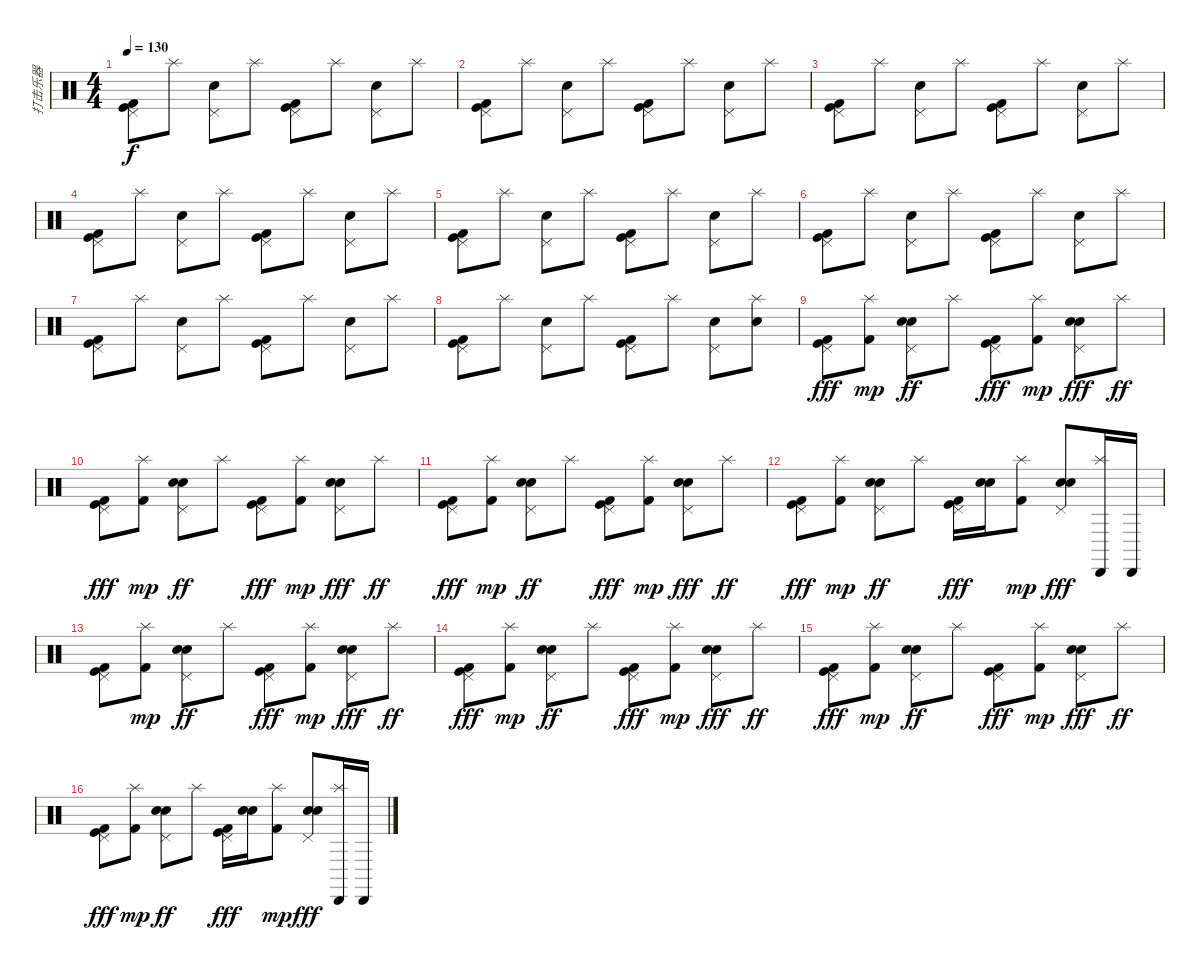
\track ("打击乐器" "打击乐器") {instrument percussion}
\staff {score}
\articulation defaults
\ts (4 4)
\tempo 130
\clef neutral
\ks c
("Pedal Hi-Hat (hit)" "Kick (hit)" "Kick (hit) 2").8{dy f} "Splash (hit)".8 ("Pedal Hi-Hat (hit)" "Snare (hit) 2").8 "Splash (hit)".8 ("Pedal Hi-Hat (hit)" "Kick (hit)" "Kick (hit) 2").8 "Splash (hit)".8 ("Pedal Hi-Hat (hit)" "Snare (hit) 2").8 "Splash (hit)".8 |
("Pedal Hi-Hat (hit)" "Kick (hit)" "Kick (hit) 2").8 "Splash (hit)".8 ("Pedal Hi-Hat (hit)" "Snare (hit) 2").8 "Splash (hit)".8 ("Pedal Hi-Hat (hit)" "Kick (hit)" "Kick (hit) 2").8 "Splash (hit)".8 ("Pedal Hi-Hat (hit)" "Snare (hit) 2").8 "Splash (hit)".8 |
("Pedal Hi-Hat (hit)" "Kick (hit)" "Kick (hit) 2").8 "Splash (hit)".8 ("Pedal Hi-Hat (hit)" "Snare (hit) 2").8 "Splash (hit)".8 ("Pedal Hi-Hat (hit)" "Kick (hit)" "Kick (hit) 2").8 "Splash (hit)".8 ("Pedal Hi-Hat (hit)" "Snare (hit) 2").8 "Splash (hit)".8 |
("Pedal Hi-Hat (hit)" "Kick (hit)" "Kick (hit) 2").8 "Splash (hit)".8 ("Pedal Hi-Hat (hit)" "Snare (hit) 2").8 "Splash (hit)".8 ("Pedal Hi-Hat (hit)" "Kick (hit)" "Kick (hit) 2").8 "Splash (hit)".8 ("Pedal Hi-Hat (hit)" "Snare (hit) 2").8 "Splash (hit)".8 |
("Pedal Hi-Hat (hit)" "Kick (hit)" "Kick (hit) 2").8 "Splash (hit)".8 ("Pedal Hi-Hat (hit)" "Snare (hit) 2").8 "Splash (hit)".8 ("Pedal Hi-Hat (hit)" "Kick (hit)" "Kick (hit) 2").8 "Splash (hit)".8 ("Pedal Hi-Hat (hit)" "Snare (hit) 2").8 "Splash (hit)".8 |
("Pedal Hi-Hat (hit)" "Kick (hit)" "Kick (hit) 2").8 "Splash (hit)".8 ("Pedal Hi-Hat (hit)" "Snare (hit) 2").8 "Splash (hit)".8 ("Pedal Hi-Hat (hit)" "Kick (hit)" "Kick (hit) 2").8 "Splash (hit)".8 ("Pedal Hi-Hat (hit)" "Snare (hit) 2").8 "Splash (hit)".8 |
("Pedal Hi-Hat (hit)" "Kick (hit)" "Kick (hit) 2").8 "Splash (hit)".8 ("Pedal Hi-Hat (hit)" "Snare (hit) 2").8 "Splash (hit)".8 ("Pedal Hi-Hat (hit)" "Kick (hit)" "Kick (hit) 2").8 "Splash (hit)".8 ("Pedal Hi-Hat (hit)" "Snare (hit) 2").8 "Splash (hit)".8 |
("Pedal Hi-Hat (hit)" "Kick (hit)" "Kick (hit) 2").8 "Splash (hit)".8 ("Pedal Hi-Hat (hit)" "Snare (hit) 2").8 "Splash (hit)".8 ("Pedal Hi-Hat (hit)" "Kick (hit)" "Kick (hit) 2").8 "Splash (hit)".8 ("Pedal Hi-Hat (hit)" "Snare (hit) 2").8 ("Splash (hit)" "Electric Snare (hit)").8 |
("Pedal Hi-Hat (hit)" "Kick (hit)" "Kick (hit) 2").8{dy fff} ("Splash (hit)" "Kick (hit) 2").8{dy mp} ("Pedal Hi-Hat (hit)" "Electric Snare (hit)" "Snare (hit) 2").8{dy ff} "Splash (hit)".8 ("Pedal Hi-Hat (hit)" "Kick (hit)" "Kick (hit) 2").8{dy fff} ("Splash (hit)" "Kick (hit) 2").8{dy mp} ("Pedal Hi-Hat (hit)" "Electric Snare (hit)" "Snare (hit) 2").8{dy fff} "Splash (hit)".8{dy ff} |
("Pedal Hi-Hat (hit)" "Kick (hit)" "Kick (hit) 2").8{dy fff} ("Splash (hit)" "Kick (hit) 2").8{dy mp} ("Pedal Hi-Hat (hit)" "Electric Snare (hit)" "Snare (hit) 2").8{dy ff} "Splash (hit)".8 ("Pedal Hi-Hat (hit)" "Kick (hit)" "Kick (hit) 2").8{dy fff} ("Splash (hit)" "Kick (hit) 2").8{dy mp} ("Pedal Hi-Hat (hit)" "Electric Snare (hit)" "Snare (hit) 2").8{dy fff} "Splash (hit)".8{dy ff} |
("Pedal Hi-Hat (hit)" "Kick (hit)" "Kick (hit) 2").8{dy fff} ("Splash (hit)" "Kick (hit) 2").8{dy mp} ("Pedal Hi-Hat (hit)" "Electric Snare (hit)" "Snare (hit) 2").8{dy ff} "Splash (hit)".8 ("Pedal Hi-Hat (hit)" "Kick (hit)" "Kick (hit) 2").8{dy fff} ("Splash (hit)" "Kick (hit) 2").8{dy mp} ("Pedal Hi-Hat (hit)" "Electric Snare (hit)" "Snare (hit) 2").8{dy fff} "Splash (hit)".8{dy ff} |
("Pedal Hi-Hat (hit)" "Kick (hit)" "Kick (hit) 2").8{dy fff} ("Splash (hit)" "Kick (hit) 2").8{dy mp} ("Pedal Hi-Hat (hit)" "Electric Snare (hit)" "Snare (hit) 2").8{dy ff} "Splash (hit)".8 ("Pedal Hi-Hat (hit)" "Kick (hit)" "Kick (hit) 2").16{dy fff} ("Electric Snare (hit)" "Snare (hit) 2").16 ("Splash (hit)" "Kick (hit) 2").8{dy mp} ("Pedal Hi-Hat (hit)" "Electric Snare (hit)" "Snare (hit) 2").8{dy fff} ("Splash (hit)" "Cabasa (hit)").16 "Cabasa (hit)".16 |
("Pedal Hi-Hat (hit)" "Kick (hit)" "Kick (hit) 2").8 ("Splash (hit)" "Kick (hit) 2").8{dy mp} ("Pedal Hi-Hat (hit)" "Electric Snare (hit)" "Snare (hit) 2").8{dy ff} "Splash (hit)".8 ("Pedal Hi-Hat (hit)" "Kick (hit)" "Kick (hit) 2").8{dy fff} ("Splash (hit)" "Kick (hit) 2").8{dy mp} ("Pedal Hi-Hat (hit)" "Electric Snare (hit)" "Snare (hit) 2").8{dy fff} "Splash (hit)".8{dy ff} |
("Pedal Hi-Hat (hit)" "Kick (hit)" "Kick (hit) 2").8{dy fff} ("Splash (hit)" "Kick (hit) 2").8{dy mp} ("Pedal Hi-Hat (hit)" "Electric Snare (hit)" "Snare (hit) 2").8{dy ff} "Splash (hit)".8 ("Pedal Hi-Hat (hit)" "Kick (hit)" "Kick (hit) 2").8{dy fff} ("Splash (hit)" "Kick (hit) 2").8{dy mp} ("Pedal Hi-Hat (hit)" "Electric Snare (hit)" "Snare (hit) 2").8{dy fff} "Splash (hit)".8{dy ff} |
("Pedal Hi-Hat (hit)" "Kick (hit)" "Kick (hit) 2").8{dy fff} ("Splash (hit)" "Kick (hit) 2").8{dy mp} ("Pedal Hi-Hat (hit)" "Electric Snare (hit)" "Snare (hit) 2").8{dy ff} "Splash (hit)".8 ("Pedal Hi-Hat (hit)" "Kick (hit)" "Kick (hit) 2").8{dy fff} ("Splash (hit)" "Kick (hit) 2").8{dy mp} ("Pedal Hi-Hat (hit)" "Electric Snare (hit)" "Snare (hit) 2").8{dy fff} "Splash (hit)".8{dy ff} |
("Pedal Hi-Hat (hit)" "Kick (hit)" "Kick (hit) 2").8{dy fff} ("Splash (hit)" "Kick (hit) 2").8{dy mp} ("Pedal Hi-Hat (hit)" "Electric Snare (hit)" "Snare (hit) 2").8{dy ff} "Splash (hit)".8 ("Pedal Hi-Hat (hit)" "Kick (hit)" "Kick (hit) 2").16{dy fff} ("Electric Snare (hit)" "Snare (hit) 2").16 ("Splash (hit)" "Kick (hit) 2").8{dy mp} ("Pedal Hi-Hat (hit)" "Electric Snare (hit)" "Snare (hit) 2").8{dy fff} ("Splash (hit)" "Cabasa (hit)").16 "Cabasa (hit)".16
